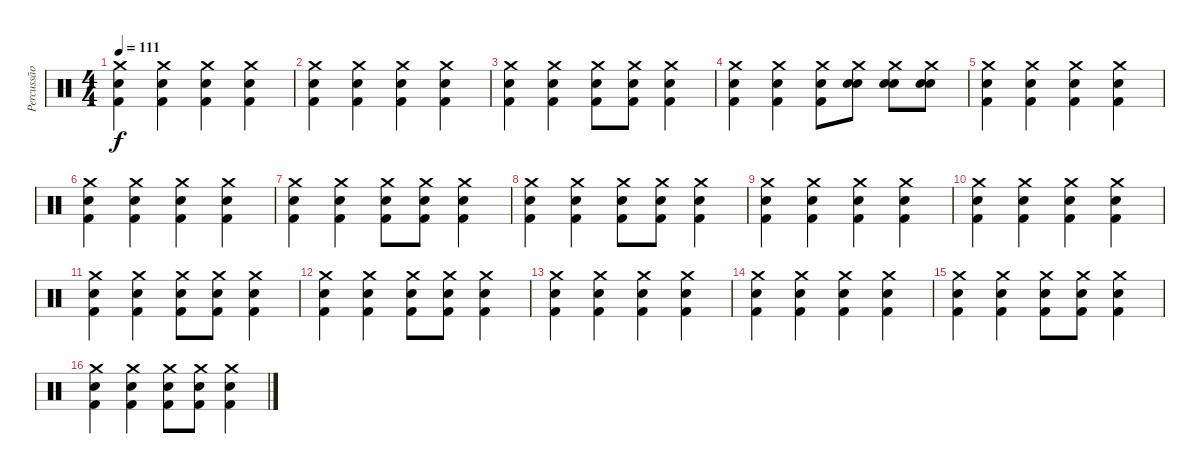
\track ("Percussão" "Percussão") {instrument percussion}
\staff {score}
\articulation defaults
\ts (4 4)
\tempo 111
\clef neutral
\ks c
("Kick (hit) 2" "Electric Snare (hit)" "Crash medium (hit)").4{dy f} ("Kick (hit) 2" "Electric Snare (hit)" "Crash medium (hit)").4 ("Kick (hit) 2" "Electric Snare (hit)" "Crash medium (hit)").4 ("Kick (hit) 2" "Electric Snare (hit)" "Crash medium (hit)").4 |
("Kick (hit) 2" "Electric Snare (hit)" "Crash medium (hit)").4 ("Kick (hit) 2" "Electric Snare (hit)" "Crash medium (hit)").4 ("Kick (hit) 2" "Electric Snare (hit)" "Crash medium (hit)").4 ("Kick (hit) 2" "Electric Snare (hit)" "Crash medium (hit)").4 |
("Kick (hit) 2" "Electric Snare (hit)" "Crash medium (hit)").4 ("Kick (hit) 2" "Electric Snare (hit)" "Crash medium (hit)").4 ("Kick (hit) 2" "Electric Snare (hit)" "Crash medium (hit)").8 ("Kick (hit) 2" "Electric Snare (hit)" "Crash medium (hit)").8 ("Kick (hit) 2" "Electric Snare (hit)" "Crash medium (hit)").4 |
("Kick (hit) 2" "Electric Snare (hit)" "Crash medium (hit)").4 ("Kick (hit) 2" "Electric Snare (hit)" "Crash medium (hit)").4 ("Kick (hit) 2" "Electric Snare (hit)" "Crash medium (hit)").8 ("Electric Snare (hit)" "Electric Snare (hit)" "Crash medium (hit)").8 ("Electric Snare (hit)" "Electric Snare (hit)" "Crash medium (hit)").8 ("Electric Snare (hit)" "Electric Snare (hit)" "Crash medium (hit)").8 |
("Kick (hit) 2" "Electric Snare (hit)" "Crash medium (hit)").4 ("Kick (hit) 2" "Electric Snare (hit)" "Crash medium (hit)").4 ("Kick (hit) 2" "Electric Snare (hit)" "Crash medium (hit)").4 ("Kick (hit) 2" "Electric Snare (hit)" "Crash medium (hit)").4 |
("Kick (hit) 2" "Electric Snare (hit)" "Crash medium (hit)").4 ("Kick (hit) 2" "Electric Snare (hit)" "Crash medium (hit)").4 ("Kick (hit) 2" "Electric Snare (hit)" "Crash medium (hit)").4 ("Kick (hit) 2" "Electric Snare (hit)" "Crash medium (hit)").4 |
("Kick (hit) 2" "Electric Snare (hit)" "Crash medium (hit)").4 ("Kick (hit) 2" "Electric Snare (hit)" "Crash medium (hit)").4 ("Kick (hit) 2" "Electric Snare (hit)" "Crash medium (hit)").8 ("Kick (hit) 2" "Electric Snare (hit)" "Crash medium (hit)").8 ("Kick (hit) 2" "Electric Snare (hit)" "Crash medium (hit)").4 |
("Kick (hit) 2" "Electric Snare (hit)" "Crash medium (hit)").4 ("Kick (hit) 2" "Electric Snare (hit)" "Crash medium (hit)").4 ("Kick (hit) 2" "Electric Snare (hit)" "Crash medium (hit)").8 ("Kick (hit) 2" "Electric Snare (hit)" "Crash medium (hit)").8 ("Kick (hit) 2" "Electric Snare (hit)" "Crash medium (hit)").4 |
("Kick (hit) 2" "Electric Snare (hit)" "Crash medium (hit)").4 ("Kick (hit) 2" "Electric Snare (hit)" "Crash medium (hit)").4 ("Kick (hit) 2" "Electric Snare (hit)" "Crash medium (hit)").4 ("Kick (hit) 2" "Electric Snare (hit)" "Crash medium (hit)").4 |
("Kick (hit) 2" "Electric Snare (hit)" "Crash medium (hit)").4 ("Kick (hit) 2" "Electric Snare (hit)" "Crash medium (hit)").4 ("Kick (hit) 2" "Electric Snare (hit)" "Crash medium (hit)").4 ("Kick (hit) 2" "Electric Snare (hit)" "Crash medium (hit)").4 |
("Kick (hit) 2" "Electric Snare (hit)" "Crash medium (hit)").4 ("Kick (hit) 2" "Electric Snare (hit)" "Crash medium (hit)").4 ("Kick (hit) 2" "Electric Snare (hit)" "Crash medium (hit)").8 ("Kick (hit) 2" "Electric Snare (hit)" "Crash medium (hit)").8 ("Kick (hit) 2" "Electric Snare (hit)" "Crash medium (hit)").4 |
("Kick (hit) 2" "Electric Snare (hit)" "Crash medium (hit)").4 ("Kick (hit) 2" "Electric Snare (hit)" "Crash medium (hit)").4 ("Kick (hit) 2" "Electric Snare (hit)" "Crash medium (hit)").8 ("Kick (hit) 2" "Electric Snare (hit)" "Crash medium (hit)").8 ("Kick (hit) 2" "Electric Snare (hit)" "Crash medium (hit)").4 |
("Kick (hit) 2" "Electric Snare (hit)" "Crash medium (hit)").4 ("Kick (hit) 2" "Electric Snare (hit)" "Crash medium (hit)").4 ("Kick (hit) 2" "Electric Snare (hit)" "Crash medium (hit)").4 ("Kick (hit) 2" "Electric Snare (hit)" "Crash medium (hit)").4 |
("Kick (hit) 2" "Electric Snare (hit)" "Crash medium (hit)").4 ("Kick (hit) 2" "Electric Snare (hit)" "Crash medium (hit)").4 ("Kick (hit) 2" "Electric Snare (hit)" "Crash medium (hit)").4 ("Kick (hit) 2" "Electric Snare (hit)" "Crash medium (hit)").4 |
("Kick (hit) 2" "Electric Snare (hit)" "Crash medium (hit)").4 ("Kick (hit) 2" "Electric Snare (hit)" "Crash medium (hit)").4 ("Kick (hit) 2" "Electric Snare (hit)" "Crash medium (hit)").8 ("Kick (hit) 2" "Electric Snare (hit)" "Crash medium (hit)").8 ("Kick (hit) 2" "Electric Snare (hit)" "Crash medium (hit)").4 |
("Kick (hit) 2" "Electric Snare (hit)" "Crash medium (hit)").4 ("Kick (hit) 2" "Electric Snare (hit)" "Crash medium (hit)").4 ("Kick (hit) 2" "Electric Snare (hit)" "Crash medium (hit)").8 ("Kick (hit) 2" "Electric Snare (hit)" "Crash medium (hit)").8 ("Kick (hit) 2" "Electric Snare (hit)" "Crash medium (hit)").4
